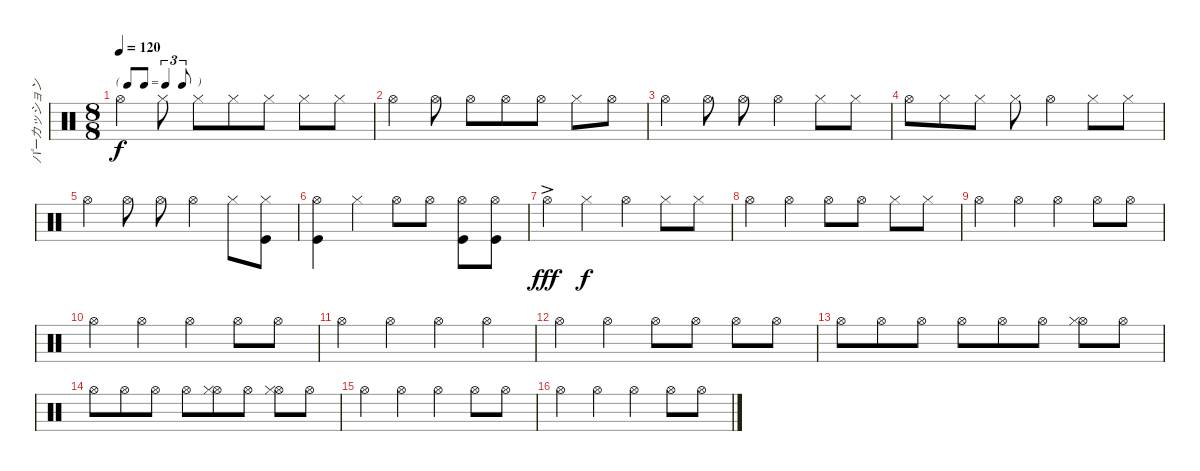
\track ("パーカッション" "パーカッション") {instrument percussion}
\staff {score}
\articulation defaults
\ts (8 8)
\tf triplet8th
\tempo 120
\clef neutral
\ks c "Hi-Hat (open)".4{dy f} "Hi-Hat (closed)".8 "Hi-Hat (closed)".8 "Hi-Hat (closed)".8 "Hi-Hat (closed)".8 "Hi-Hat (closed)".8 "Hi-Hat (closed)".8
|
"Hi-Hat (open)".4 "Hi-Hat (open)".8 "Hi-Hat (open)".8 "Hi-Hat (open)".8 "Hi-Hat (open)".8 "Hi-Hat (closed)".8 "Hi-Hat (open)".8 |
"Hi-Hat (open)".4 "Hi-Hat (open)".8 "Hi-Hat (open)".8 "Hi-Hat (open)".4 "Hi-Hat (closed)".8 "Hi-Hat (closed)".8 |
"Hi-Hat (open)".8 "Hi-Hat (closed)".8 "Hi-Hat (closed)".8 "Hi-Hat (closed)".8 "Hi-Hat (open)".4 "Hi-Hat (closed)".8 "Hi-Hat (closed)".8 |
"Hi-Hat (open)".4 "Hi-Hat (open)".8 "Hi-Hat (open)".8 "Hi-Hat (open)".4 "Hi-Hat (closed)".8 ("Hi-Hat (closed)" "Kick (hit)").8 |
("Hi-Hat (open)" "Kick (hit)").4 "Hi-Hat (closed)".4 "Hi-Hat (open)".8 "Hi-Hat (open)".8 ("Hi-Hat (open)" "Kick (hit)").8 ("Hi-Hat (open)" "Kick (hit)").8 |
"Hi-Hat (open)"{ac}.4{dy fff} "Hi-Hat (closed)".4{dy f} "Hi-Hat (open)".4 "Hi-Hat (closed)".8 "Hi-Hat (closed)".8 |
"Hi-Hat (open)".4 "Hi-Hat (open)".4 "Hi-Hat (open)".8 "Hi-Hat (open)".8 "Hi-Hat (closed)".8 "Hi-Hat (closed)".8 |
"Hi-Hat (open)".4 "Hi-Hat (open)".4 "Hi-Hat (open)".4 "Hi-Hat (open)".8 "Hi-Hat (open)".8 |
"Hi-Hat (open)".4 "Hi-Hat (open)".4 "Hi-Hat (open)".4 "Hi-Hat (open)".8 "Hi-Hat (open)".8 |
"Hi-Hat (open)".4 "Hi-Hat (open)".4 "Hi-Hat (open)".4 "Hi-Hat (open)".4 |
"Hi-Hat (open)".4 "Hi-Hat (open)".4 "Hi-Hat (open)".8 "Hi-Hat (open)".8 "Hi-Hat (open)".8 "Hi-Hat (open)".8 |
"Hi-Hat (open)".8 "Hi-Hat (open)".8 "Hi-Hat (open)".8 "Hi-Hat (open)".8 "Hi-Hat (open)".8 "Hi-Hat (open)".8 ("Hi-Hat (open)" "Hi-Hat (closed)").8 "Hi-Hat (open)".8 |
"Hi-Hat (open)".8 "Hi-Hat (open)".8 "Hi-Hat (open)".8 "Hi-Hat (open)".8 ("Hi-Hat (open)" "Hi-Hat (closed)").8 "Hi-Hat (open)".8 ("Hi-Hat (open)" "Hi-Hat (closed)").8 "Hi-Hat (open)".8 |
"Hi-Hat (open)".4 "Hi-Hat (open)".4 "Hi-Hat (open)".4 "Hi-Hat (open)".8 "Hi-Hat (open)".8 |
"Hi-Hat (open)".4 "Hi-Hat (open)".4 "Hi-Hat (open)".4 "Hi-Hat (open)".8 "Hi-Hat (open)".8
